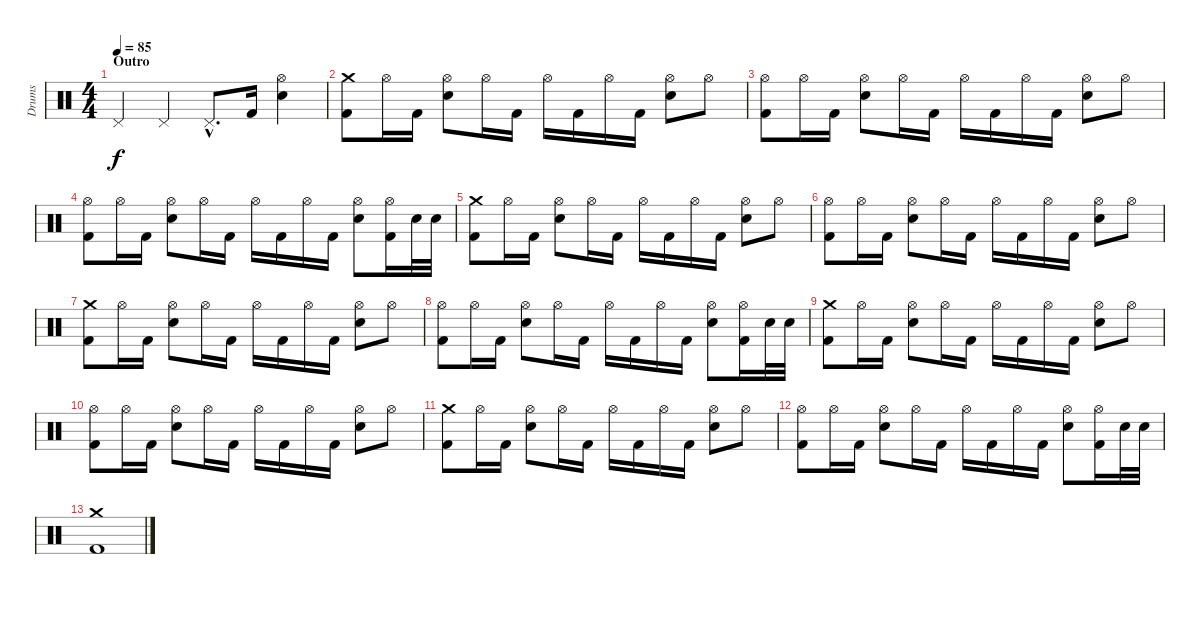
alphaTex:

\track ("Drums" "Drums") {instrument percussion}
\staff {score}
\articulation defaults
\ts (4 4)
\section ("" "Outro")
\tempo 85
\clef neutral
\ks c "Pedal Hi-Hat (hit)".4{dy f} "Pedal Hi-Hat (hit)".4 "Pedal Hi-Hat (hit)"{hac}.8{d} "Kick (hit) 2".16
("Hi-Hat (open)" "Electric Snare (hit)").4 |
("Crash medium (hit)" "Kick (hit) 2").8 "Hi-Hat (open)".16 "Kick (hit) 2".16 ("Hi-Hat (open)" "Electric Snare (hit)").8 "Hi-Hat (open)".16 "Kick (hit) 2".16 "Hi-Hat (open)".16 "Kick (hit) 2".16 "Hi-Hat (open)".16 "Kick (hit) 2".16 ("Hi-Hat (open)" "Electric Snare (hit)").8 "Hi-Hat (open)".8 |
("Hi-Hat (open)" "Kick (hit) 2").8 "Hi-Hat (open)".16 "Kick (hit) 2".16 ("Hi-Hat (open)" "Electric Snare (hit)").8 "Hi-Hat (open)".16 "Kick (hit) 2".16 "Hi-Hat (open)".16 "Kick (hit) 2".16 "Hi-Hat (open)".16 "Kick (hit) 2".16 ("Hi-Hat (open)" "Electric Snare (hit)").8 "Hi-Hat (open)".8 |
("Hi-Hat (open)" "Kick (hit) 2").8 "Hi-Hat (open)".16 "Kick (hit) 2".16 ("Hi-Hat (open)" "Electric Snare (hit)").8 "Hi-Hat (open)".16 "Kick (hit) 2".16 "Hi-Hat (open)".16 "Kick (hit) 2".16 "Hi-Hat (open)".16 "Kick (hit) 2".16 ("Hi-Hat (open)" "Electric Snare (hit)").8 ("Hi-Hat (open)" "Kick (hit) 2").16 "Electric Snare (hit)".32 "Electric Snare (hit)".32 |
("Crash medium (hit)" "Kick (hit) 2").8{volume 9} "Hi-Hat (open)".16 "Kick (hit) 2".16 ("Hi-Hat (open)" "Electric Snare (hit)").8 "Hi-Hat (open)".16 "Kick (hit) 2".16 "Hi-Hat (open)".16 "Kick (hit) 2".16 "Hi-Hat (open)".16 "Kick (hit) 2".16 ("Hi-Hat (open)" "Electric Snare (hit)").8 "Hi-Hat (open)".8 |
("Hi-Hat (open)" "Kick (hit) 2").8 "Hi-Hat (open)".16 "Kick (hit) 2".16 ("Hi-Hat (open)" "Electric Snare (hit)").8 "Hi-Hat (open)".16 "Kick (hit) 2".16 "Hi-Hat (open)".16 "Kick (hit) 2".16 "Hi-Hat (open)".16 "Kick (hit) 2".16 ("Hi-Hat (open)" "Electric Snare (hit)").8 "Hi-Hat (open)".8 |
("Crash medium (hit)" "Kick (hit) 2").8{volume 6} "Hi-Hat (open)".16 "Kick (hit) 2".16 ("Hi-Hat (open)" "Electric Snare (hit)").8 "Hi-Hat (open)".16 "Kick (hit) 2".16 "Hi-Hat (open)".16 "Kick (hit) 2".16 "Hi-Hat (open)".16 "Kick (hit) 2".16 ("Hi-Hat (open)" "Electric Snare (hit)").8 "Hi-Hat (open)".8 |
("Hi-Hat (open)" "Kick (hit) 2").8 "Hi-Hat (open)".16 "Kick (hit) 2".16 ("Hi-Hat (open)" "Electric Snare (hit)").8 "Hi-Hat (open)".16 "Kick (hit) 2".16 "Hi-Hat (open)".16 "Kick (hit) 2".16 "Hi-Hat (open)".16 "Kick (hit) 2".16 ("Hi-Hat (open)" "Electric Snare (hit)").8 ("Hi-Hat (open)" "Kick (hit) 2").16 "Electric Snare (hit)".32 "Electric Snare (hit)".32 |
("Crash medium (hit)" "Kick (hit) 2").8{volume 3} "Hi-Hat (open)".16 "Kick (hit) 2".16 ("Hi-Hat (open)" "Electric Snare (hit)").8 "Hi-Hat (open)".16 "Kick (hit) 2".16 "Hi-Hat (open)".16 "Kick (hit) 2".16 "Hi-Hat (open)".16 "Kick (hit) 2".16 ("Hi-Hat (open)" "Electric Snare (hit)").8 "Hi-Hat (open)".8 |
("Hi-Hat (open)" "Kick (hit) 2").8 "Hi-Hat (open)".16 "Kick (hit) 2".16 ("Hi-Hat (open)" "Electric Snare (hit)").8 "Hi-Hat (open)".16 "Kick (hit) 2".16 "Hi-Hat (open)".16 "Kick (hit) 2".16 "Hi-Hat (open)".16 "Kick (hit) 2".16 ("Hi-Hat (open)" "Electric Snare (hit)").8 "Hi-Hat (open)".8 |
("Crash medium (hit)" "Kick (hit) 2").8{volume 1} "Hi-Hat (open)".16 "Kick (hit) 2".16 ("Hi-Hat (open)" "Electric Snare (hit)").8 "Hi-Hat (open)".16 "Kick (hit) 2".16 "Hi-Hat (open)".16 "Kick (hit) 2".16 "Hi-Hat (open)".16 "Kick (hit) 2".16 ("Hi-Hat (open)" "Electric Snare (hit)").8 "Hi-Hat (open)".8 |
("Hi-Hat (open)" "Kick (hit) 2").8 "Hi-Hat (open)".16 "Kick (hit) 2".16 ("Hi-Hat (open)" "Electric Snare (hit)").8 "Hi-Hat (open)".16 "Kick (hit) 2".16 "Hi-Hat (open)".16 "Kick (hit) 2".16 "Hi-Hat (open)".16 "Kick (hit) 2".16 ("Hi-Hat (open)" "Electric Snare (hit)").8 ("Hi-Hat (open)" "Kick (hit) 2").16 "Electric Snare (hit)".32 "Electric Snare (hit)".32 |
("Crash medium (hit)" "Kick (hit) 2").1
